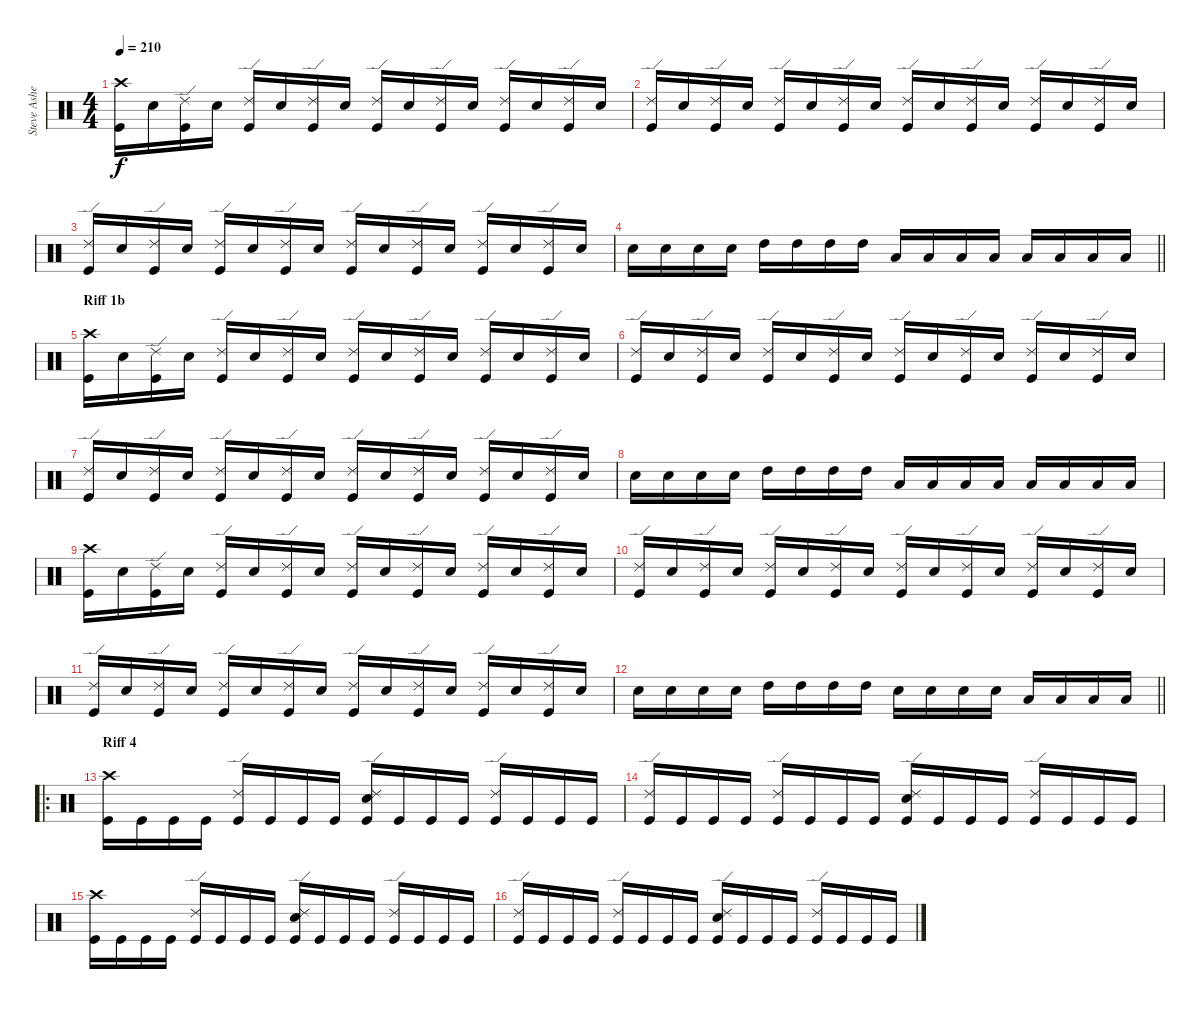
\track ("Steve Asheim" "Steve Ashe") {instrument percussion}
\staff {score}
\articulation defaults
\ts (4 4)
\tempo 210
\clef neutral
\ks c
("Crash high (hit)" "Kick (hit)").16{dy f} "Snare (hit) 2".16 ("Ride (edge) 2" "Kick (hit)").16 "Snare (hit) 2".16 ("Ride (edge) 2" "Kick (hit)").16 "Snare (hit) 2".16 ("Ride (edge) 2" "Kick (hit)").16 "Snare (hit) 2".16 ("Ride (edge) 2" "Kick (hit)").16 "Snare (hit) 2".16 ("Ride (edge) 2" "Kick (hit)").16 "Snare (hit) 2".16 ("Ride (edge) 2" "Kick (hit)").16 "Snare (hit) 2".16 ("Ride (edge) 2" "Kick (hit)").16 "Snare (hit) 2".16 |
("Ride (edge) 2" "Kick (hit)").16 "Snare (hit) 2".16 ("Ride (edge) 2" "Kick (hit)").16 "Snare (hit) 2".16 ("Ride (edge) 2" "Kick (hit)").16 "Snare (hit) 2".16 ("Ride (edge) 2" "Kick (hit)").16 "Snare (hit) 2".16 ("Ride (edge) 2" "Kick (hit)").16 "Snare (hit) 2".16 ("Ride (edge) 2" "Kick (hit)").16 "Snare (hit) 2".16 ("Ride (edge) 2" "Kick (hit)").16 "Snare (hit) 2".16 ("Ride (edge) 2" "Kick (hit)").16 "Snare (hit) 2".16 |
("Ride (edge) 2" "Kick (hit)").16 "Snare (hit) 2".16 ("Ride (edge) 2" "Kick (hit)").16 "Snare (hit) 2".16 ("Ride (edge) 2" "Kick (hit)").16 "Snare (hit) 2".16 ("Ride (edge) 2" "Kick (hit)").16 "Snare (hit) 2".16 ("Ride (edge) 2" "Kick (hit)").16 "Snare (hit) 2".16 ("Ride (edge) 2" "Kick (hit)").16 "Snare (hit) 2".16 ("Ride (edge) 2" "Kick (hit)").16 "Snare (hit) 2".16 ("Ride (edge) 2" "Kick (hit)").16 "Snare (hit) 2".16 |
\barLineRight lightlight "Snare (hit) 2".16 "Snare (hit) 2".16 "Snare (hit) 2".16 "Snare (hit) 2".16 "High Tom (hit)".16 "High Tom (hit)".16 "High Tom (hit)".16 "High Tom (hit)".16 "Low Tom (hit)".16 "Low Tom (hit)".16 "Low Tom (hit)".16 "Low Tom (hit)".16 "Low Floor Tom (hit)".16 "Low Floor Tom (hit)".16 "Low Floor Tom (hit)".16 "Low Floor Tom (hit)".16
|
\section ("" "Riff 1b")
("Crash high (hit)" "Kick (hit)").16 "Snare (hit) 2".16 ("Ride (edge) 2" "Kick (hit)").16 "Snare (hit) 2".16 ("Ride (edge) 2" "Kick (hit)").16 "Snare (hit) 2".16 ("Ride (edge) 2" "Kick (hit)").16 "Snare (hit) 2".16 ("Ride (edge) 2" "Kick (hit)").16 "Snare (hit) 2".16 ("Ride (edge) 2" "Kick (hit)").16 "Snare (hit) 2".16 ("Ride (edge) 2" "Kick (hit)").16 "Snare (hit) 2".16 ("Ride (edge) 2" "Kick (hit)").16 "Snare (hit) 2".16 |
("Ride (edge) 2" "Kick (hit)").16 "Snare (hit) 2".16 ("Ride (edge) 2" "Kick (hit)").16 "Snare (hit) 2".16 ("Ride (edge) 2" "Kick (hit)").16 "Snare (hit) 2".16 ("Ride (edge) 2" "Kick (hit)").16 "Snare (hit) 2".16 ("Ride (edge) 2" "Kick (hit)").16 "Snare (hit) 2".16 ("Ride (edge) 2" "Kick (hit)").16 "Snare (hit) 2".16 ("Ride (edge) 2" "Kick (hit)").16 "Snare (hit) 2".16 ("Ride (edge) 2" "Kick (hit)").16 "Snare (hit) 2".16 |
("Ride (edge) 2" "Kick (hit)").16 "Snare (hit) 2".16 ("Ride (edge) 2" "Kick (hit)").16 "Snare (hit) 2".16 ("Ride (edge) 2" "Kick (hit)").16 "Snare (hit) 2".16 ("Ride (edge) 2" "Kick (hit)").16 "Snare (hit) 2".16 ("Ride (edge) 2" "Kick (hit)").16 "Snare (hit) 2".16 ("Ride (edge) 2" "Kick (hit)").16 "Snare (hit) 2".16 ("Ride (edge) 2" "Kick (hit)").16 "Snare (hit) 2".16 ("Ride (edge) 2" "Kick (hit)").16 "Snare (hit) 2".16 |
"Snare (hit) 2".16 "Snare (hit) 2".16 "Snare (hit) 2".16 "Snare (hit) 2".16 "High Tom (hit)".16 "High Tom (hit)".16 "High Tom (hit)".16 "High Tom (hit)".16 "Low Tom (hit)".16 "Low Tom (hit)".16 "Low Tom (hit)".16 "Low Tom (hit)".16 "Low Floor Tom (hit)".16 "Low Floor Tom (hit)".16 "Low Floor Tom (hit)".16 "Low Floor Tom (hit)".16 |
("Crash high (hit)" "Kick (hit)").16 "Snare (hit) 2".16 ("Ride (edge) 2" "Kick (hit)").16 "Snare (hit) 2".16 ("Ride (edge) 2" "Kick (hit)").16 "Snare (hit) 2".16 ("Ride (edge) 2" "Kick (hit)").16 "Snare (hit) 2".16 ("Ride (edge) 2" "Kick (hit)").16 "Snare (hit) 2".16 ("Ride (edge) 2" "Kick (hit)").16 "Snare (hit) 2".16 ("Ride (edge) 2" "Kick (hit)").16 "Snare (hit) 2".16 ("Ride (edge) 2" "Kick (hit)").16 "Snare (hit) 2".16 |
("Ride (edge) 2" "Kick (hit)").16 "Snare (hit) 2".16 ("Ride (edge) 2" "Kick (hit)").16 "Snare (hit) 2".16 ("Ride (edge) 2" "Kick (hit)").16 "Snare (hit) 2".16 ("Ride (edge) 2" "Kick (hit)").16 "Snare (hit) 2".16 ("Ride (edge) 2" "Kick (hit)").16 "Snare (hit) 2".16 ("Ride (edge) 2" "Kick (hit)").16 "Snare (hit) 2".16 ("Ride (edge) 2" "Kick (hit)").16 "Snare (hit) 2".16 ("Ride (edge) 2" "Kick (hit)").16 "Snare (hit) 2".16 |
("Ride (edge) 2" "Kick (hit)").16 "Snare (hit) 2".16 ("Ride (edge) 2" "Kick (hit)").16 "Snare (hit) 2".16 ("Ride (edge) 2" "Kick (hit)").16 "Snare (hit) 2".16 ("Ride (edge) 2" "Kick (hit)").16 "Snare (hit) 2".16 ("Ride (edge) 2" "Kick (hit)").16 "Snare (hit) 2".16 ("Ride (edge) 2" "Kick (hit)").16 "Snare (hit) 2".16 ("Ride (edge) 2" "Kick (hit)").16 "Snare (hit) 2".16 ("Ride (edge) 2" "Kick (hit)").16 "Snare (hit) 2".16 |
\barLineRight lightlight "Snare (hit) 2".16 "Snare (hit) 2".16 "Snare (hit) 2".16 "Snare (hit) 2".16 "High Tom (hit)".16 "High Tom (hit)".16 "High Tom (hit)".16 "High Tom (hit)".16 "Snare (hit) 2".16 "Snare (hit) 2".16 "Snare (hit) 2".16 "Snare (hit) 2".16 "Low Tom (hit)".16 "Low Tom (hit)".16 "Low Tom (hit)".16 "Low Tom (hit)".16
|
\ro
\section ("" "Riff 4")
("Crash high (hit)" "Kick (hit)").16 "Kick (hit)".16 "Kick (hit)".16 "Kick (hit)".16 ("Ride (edge) 2" "Kick (hit)").16 "Kick (hit)".16 "Kick (hit)".16 "Kick (hit)".16 ("Ride (edge) 2" "Snare (hit) 2" "Kick (hit)").16 "Kick (hit)".16 "Kick (hit)".16 "Kick (hit)".16 ("Ride (edge) 2" "Kick (hit)").16 "Kick (hit)".16 "Kick (hit)".16 "Kick (hit)".16 |
("Ride (edge) 2" "Kick (hit)").16 "Kick (hit)".16 "Kick (hit)".16 "Kick (hit)".16 ("Ride (edge) 2" "Kick (hit)").16 "Kick (hit)".16 "Kick (hit)".16 "Kick (hit)".16 ("Ride (edge) 2" "Snare (hit) 2" "Kick (hit)").16 "Kick (hit)".16 "Kick (hit)".16 "Kick (hit)".16 ("Ride (edge) 2" "Kick (hit)").16 "Kick (hit)".16 "Kick (hit)".16 "Kick (hit)".16 |
("Crash high (hit)" "Kick (hit)").16 "Kick (hit)".16 "Kick (hit)".16 "Kick (hit)".16 ("Ride (edge) 2" "Kick (hit)").16 "Kick (hit)".16 "Kick (hit)".16 "Kick (hit)".16 ("Ride (edge) 2" "Snare (hit) 2" "Kick (hit)").16 "Kick (hit)".16 "Kick (hit)".16 "Kick (hit)".16 ("Ride (edge) 2" "Kick (hit)").16 "Kick (hit)".16 "Kick (hit)".16 "Kick (hit)".16 |
("Ride (edge) 2" "Kick (hit)").16 "Kick (hit)".16 "Kick (hit)".16 "Kick (hit)".16 ("Ride (edge) 2" "Kick (hit)").16 "Kick (hit)".16 "Kick (hit)".16 "Kick (hit)".16 ("Ride (edge) 2" "Snare (hit) 2" "Kick (hit)").16 "Kick (hit)".16 "Kick (hit)".16 "Kick (hit)".16 ("Ride (edge) 2" "Kick (hit)").16 "Kick (hit)".16 "Kick (hit)".16 "Kick (hit)".16
